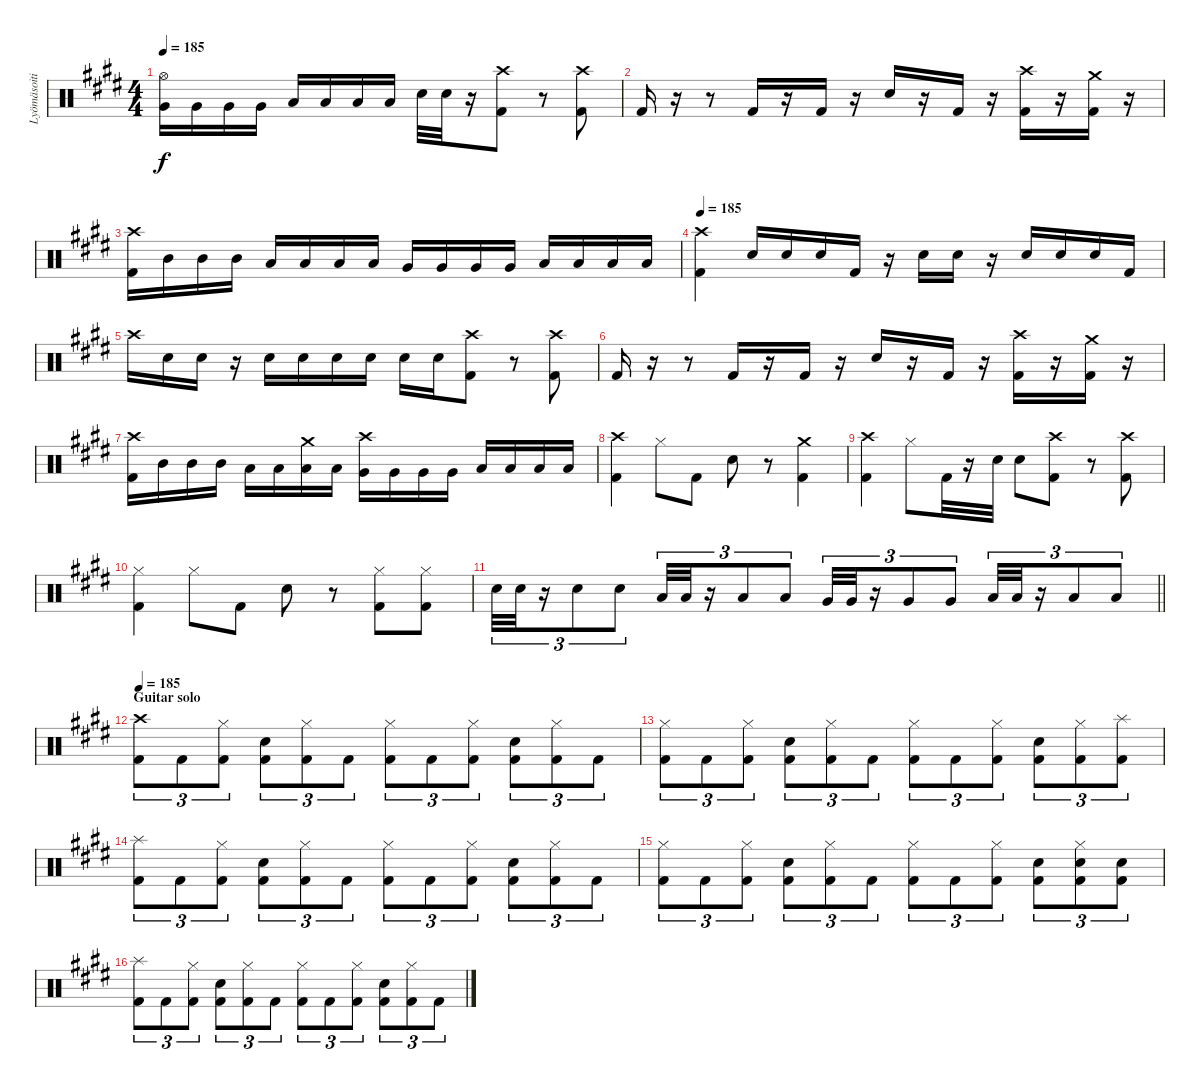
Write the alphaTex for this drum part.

\track ("Lyömäsoitin" "Lyömäsoiti") {instrument percussion}
\staff {score}
\articulation defaults
\ts (4 4)
\tempo 185
\clef neutral
\ks e
("Hi-Hat (open)" "Very Low Tom (hit)").16{dy f} "Very Low Tom (hit)".16 "Very Low Tom (hit)".16 "Very Low Tom (hit)".16 "Low Floor Tom (hit)".16 "Low Floor Tom (hit)".16 "Low Floor Tom (hit)".16 "Low Floor Tom (hit)".16 "Electric Snare (hit)".32 "Electric Snare (hit)".32 r.16 ("Crash high (hit)" "Kick (hit) 2").8 r.8 ("Crash high (hit)" "Kick (hit) 2").8 |
"Kick (hit) 2".16 r.16 r.8 "Kick (hit) 2".16 r.16 "Kick (hit) 2".16 r.16 "Electric Snare (hit)".16 r.16 "Kick (hit) 2".16 r.16 ("Crash high (hit)" "Kick (hit) 2").16 r.16 ("Crash medium (hit)" "Kick (hit) 2").16 r.16 |
("Crash high (hit)" "Kick (hit) 2").16 "Mid Tom (hit)".16 "Mid Tom (hit)".16 "Mid Tom (hit)".16 "Low Tom (hit)".16 "Low Tom (hit)".16 "Low Tom (hit)".16 "Low Tom (hit)".16 "Very Low Tom (hit)".16 "Very Low Tom (hit)".16 "Very Low Tom (hit)".16 "Very Low Tom (hit)".16 "Low Floor Tom (hit)".16 "Low Floor Tom (hit)".16 "Low Floor Tom (hit)".16 "Low Floor Tom (hit)".16 |
\tempo 185
("Crash high (hit)" "Kick (hit) 2").4 "Electric Snare (hit)".16 "Electric Snare (hit)".16 "Electric Snare (hit)".16 "Kick (hit) 2".16 r.16 "Electric Snare (hit)".16 "Electric Snare (hit)".16 r.16 "Electric Snare (hit)".16 "Electric Snare (hit)".16 "Electric Snare (hit)".16 "Kick (hit) 2".16 |
"Crash high (hit)".16 "Electric Snare (hit)".16 "Electric Snare (hit)".16 r.16 "Electric Snare (hit)".16 "Electric Snare (hit)".16 "Electric Snare (hit)".16 "Electric Snare (hit)".16 "Electric Snare (hit)".16 "Electric Snare (hit)".16 ("Crash high (hit)" "Kick (hit) 2").8 r.8 ("Crash high (hit)" "Kick (hit) 2").8 |
"Kick (hit) 2".16 r.16 r.8 "Kick (hit) 2".16 r.16 "Kick (hit) 2".16 r.16 "Electric Snare (hit)".16 r.16 "Kick (hit) 2".16 r.16 ("Crash high (hit)" "Kick (hit) 2").16 r.16 ("Crash medium (hit)" "Kick (hit) 2").16 r.16 |
("Crash high (hit)" "Kick (hit) 2").16 "Mid Tom (hit)".16 "Mid Tom (hit)".16 "Mid Tom (hit)".16 "Low Tom (hit)".16 "Low Tom (hit)".16 ("Crash medium (hit)" "Low Tom (hit)").16 "Low Tom (hit)".16 ("Crash high (hit)" "Very Low Tom (hit)").16 "Very Low Tom (hit)".16 "Very Low Tom (hit)".16 "Very Low Tom (hit)".16 "Low Floor Tom (hit)".16 "Low Floor Tom (hit)".16 "Low Floor Tom (hit)".16 "Low Floor Tom (hit)".16 |
("Crash high (hit)" "Kick (hit) 2").4 "Hi-Hat (closed)".8 "Kick (hit) 2".8 "Electric Snare (hit)".8 r.8 ("Crash medium (hit)" "Kick (hit) 2").4 |
("Crash high (hit)" "Kick (hit) 2").4 "Hi-Hat (closed)".8 "Kick (hit) 2".32 r.16 "Electric Snare (hit)".32 "Electric Snare (hit)".8 ("Crash high (hit)" "Kick (hit) 2").8 r.8 ("Crash high (hit)" "Kick (hit) 2").8 |
("Hi-Hat (closed)" "Kick (hit) 2").4 "Hi-Hat (closed)".8 "Kick (hit) 2".8 "Electric Snare (hit)".8 r.8 ("Hi-Hat (closed)" "Kick (hit) 2").8 ("Hi-Hat (closed)" "Kick (hit) 2").8 |
\barLineRight lightlight "Electric Snare (hit)".32{tu (3 2)} "Electric Snare (hit)".32{tu (3 2)}
r.16{tu (3 2)} "Electric Snare (hit)".8{tu (3 2)} "Electric Snare (hit)".8{tu (3 2)} "Low Tom (hit)".32{tu (3 2)} "Low Tom (hit)".32{tu (3 2)} r.16{tu (3 2)} "Low Tom (hit)".8{tu (3 2)} "Low Tom (hit)".8{tu (3 2)} "Very Low Tom (hit)".32{tu (3 2)} "Very Low Tom (hit)".32{tu (3 2)} r.16{tu (3 2)} "Very Low Tom (hit)".8{tu (3 2)} "Very Low Tom (hit)".8{tu (3 2)} "Low Floor Tom (hit)".32{tu (3 2)} "Low Floor Tom (hit)".32{tu (3 2)} r.16{tu (3 2)} "Low Floor Tom (hit)".8{tu (3 2)} "Low Floor Tom (hit)".8{tu (3 2)} |
\section ("" "Guitar solo")
\tempo 185
("Crash high (hit)" "Kick (hit) 2").8{tu (3 2)} "Kick (hit) 2".8{tu (3 2)} ("Hi-Hat (closed)" "Kick (hit) 2").8{tu (3 2)} ("Electric Snare (hit)" "Kick (hit) 2").8{tu (3 2)} ("Hi-Hat (closed)" "Kick (hit) 2").8{tu (3 2)} "Kick (hit) 2".8{tu (3 2)} ("Hi-Hat (closed)" "Kick (hit) 2").8{tu (3 2)} "Kick (hit) 2".8{tu (3 2)} ("Hi-Hat (closed)" "Kick (hit) 2").8{tu (3 2)} ("Electric Snare (hit)" "Kick (hit) 2").8{tu (3 2)} ("Hi-Hat (closed)" "Kick (hit) 2").8{tu (3 2)} "Kick (hit) 2".8{tu (3 2)} |
("Hi-Hat (closed)" "Kick (hit) 2").8{tu (3 2)} "Kick (hit) 2".8{tu (3 2)} ("Hi-Hat (closed)" "Kick (hit) 2").8{tu (3 2)} ("Electric Snare (hit)" "Kick (hit) 2").8{tu (3 2)} ("Hi-Hat (closed)" "Kick (hit) 2").8{tu (3 2)} "Kick (hit) 2".8{tu (3 2)} ("Hi-Hat (closed)" "Kick (hit) 2").8{tu (3 2)} "Kick (hit) 2".8{tu (3 2)} ("Hi-Hat (closed)" "Kick (hit) 2").8{tu (3 2)} ("Electric Snare (hit)" "Kick (hit) 2").8{tu (3 2)} ("Hi-Hat (closed)" "Kick (hit) 2").8{tu (3 2)} ("Splash (hit)" "Kick (hit) 2").8{tu (3 2)} |
("Splash (hit)" "Kick (hit) 2").8{tu (3 2)} "Kick (hit) 2".8{tu (3 2)} ("Hi-Hat (closed)" "Kick (hit) 2").8{tu (3 2)} ("Electric Snare (hit)" "Kick (hit) 2").8{tu (3 2)} ("Hi-Hat (closed)" "Kick (hit) 2").8{tu (3 2)} "Kick (hit) 2".8{tu (3 2)} ("Hi-Hat (closed)" "Kick (hit) 2").8{tu (3 2)} "Kick (hit) 2".8{tu (3 2)} ("Hi-Hat (closed)" "Kick (hit) 2").8{tu (3 2)} ("Electric Snare (hit)" "Kick (hit) 2").8{tu (3 2)} ("Hi-Hat (closed)" "Kick (hit) 2").8{tu (3 2)} "Kick (hit) 2".8{tu (3 2)} |
("Hi-Hat (closed)" "Kick (hit) 2").8{tu (3 2)} "Kick (hit) 2".8{tu (3 2)} ("Hi-Hat (closed)" "Kick (hit) 2").8{tu (3 2)} ("Electric Snare (hit)" "Kick (hit) 2").8{tu (3 2)} ("Hi-Hat (closed)" "Kick (hit) 2").8{tu (3 2)} "Kick (hit) 2".8{tu (3 2)} ("Hi-Hat (closed)" "Kick (hit) 2").8{tu (3 2)} "Kick (hit) 2".8{tu (3 2)} ("Hi-Hat (closed)" "Kick (hit) 2").8{tu (3 2)} ("Electric Snare (hit)" "Kick (hit) 2").8{tu (3 2)} ("Hi-Hat (closed)" "Electric Snare (hit)" "Kick (hit) 2").8{tu (3 2)} ("Electric Snare (hit)" "Kick (hit) 2").8{tu (3 2)} |
("Splash (hit)" "Kick (hit) 2").8{tu (3 2)} "Kick (hit) 2".8{tu (3 2)} ("Hi-Hat (closed)" "Kick (hit) 2").8{tu (3 2)} ("Electric Snare (hit)" "Kick (hit) 2").8{tu (3 2)} ("Hi-Hat (closed)" "Kick (hit) 2").8{tu (3 2)} "Kick (hit) 2".8{tu (3 2)} ("Hi-Hat (closed)" "Kick (hit) 2").8{tu (3 2)} "Kick (hit) 2".8{tu (3 2)} ("Hi-Hat (closed)" "Kick (hit) 2").8{tu (3 2)} ("Electric Snare (hit)" "Kick (hit) 2").8{tu (3 2)} ("Hi-Hat (closed)" "Kick (hit) 2").8{tu (3 2)} "Kick (hit) 2".8{tu (3 2)}
